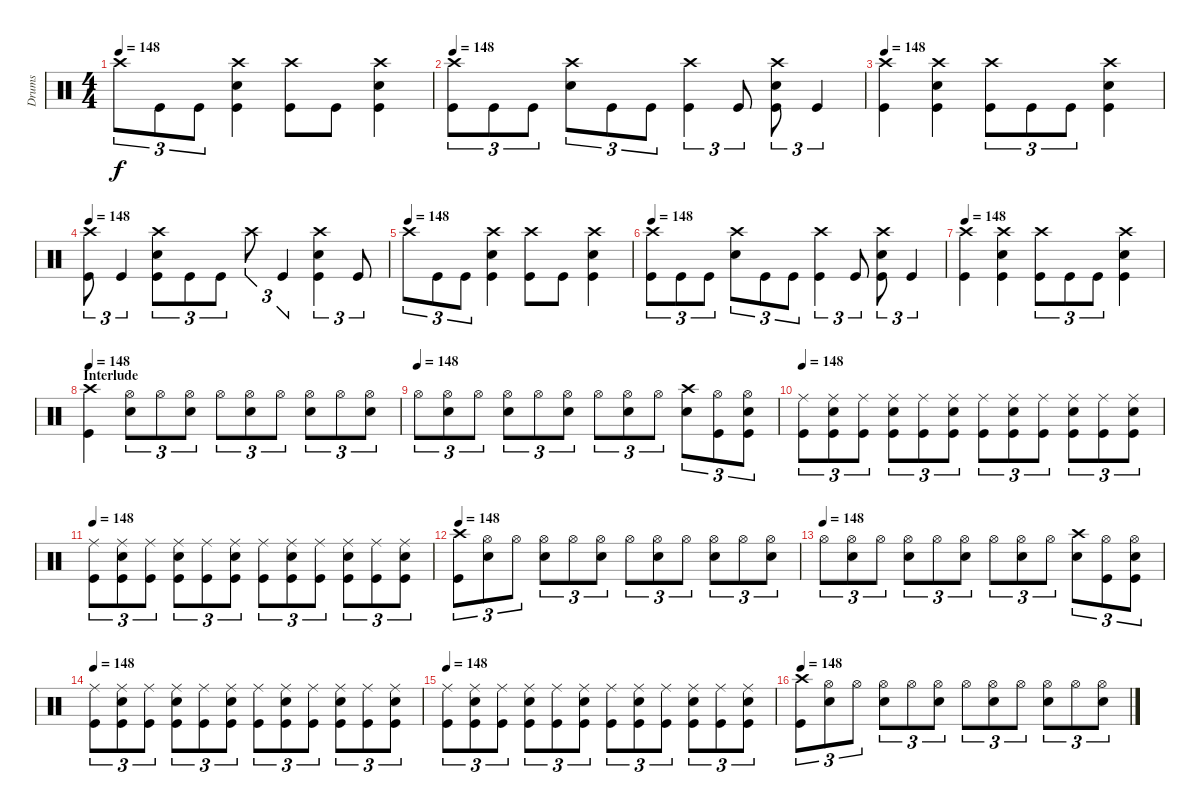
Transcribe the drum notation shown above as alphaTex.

\track ("Drums" "Drums") {instrument percussion}
\staff {score}
\articulation defaults
\ts (4 4)
\tempo 148
\clef neutral
\ks c "Crash high (hit)".8{tu (3 2) dy f} "Kick (hit)".8{tu (3 2)} "Kick (hit)".8{tu (3 2)}
("Crash high (hit)" "Electric Snare (hit)" "Kick (hit)").4 ("Crash high (hit)" "Kick (hit)").8 "Kick (hit)".8 ("Crash high (hit)" "Electric Snare (hit)" "Kick (hit)").4 |
\tempo 148
("Crash high (hit)" "Kick (hit)").8{tu (3 2)} "Kick (hit)".8{tu (3 2)} "Kick (hit)".8{tu (3 2)} ("Crash high (hit)" "Electric Snare (hit)").8{tu (3 2)} "Kick (hit)".8{tu (3 2)} "Kick (hit)".8{tu (3 2)} ("Crash high (hit)" "Kick (hit)").4{tu (3 2)} "Kick (hit)".8{tu (3 2)} ("Crash high (hit)" "Electric Snare (hit)" "Kick (hit)").8{tu (3 2)} "Kick (hit)".4{tu (3 2)} |
\tempo 148
("Crash high (hit)" "Kick (hit)").4 ("Crash high (hit)" "Electric Snare (hit)" "Kick (hit)").4 ("Crash high (hit)" "Kick (hit)").8{tu (3 2)} "Kick (hit)".8{tu (3 2)} "Kick (hit)".8{tu (3 2)} ("Crash high (hit)" "Electric Snare (hit)" "Kick (hit)").4 |
\tempo 148
("Crash high (hit)" "Kick (hit)").8{tu (3 2)} "Kick (hit)".4{tu (3 2)} ("Crash high (hit)" "Electric Snare (hit)" "Kick (hit)").8{tu (3 2)} "Kick (hit)".8{tu (3 2)} "Kick (hit)".8{tu (3 2)} "Crash high (hit)".8{tu (3 2)} "Kick (hit)".4{tu (3 2)} ("Crash high (hit)" "Electric Snare (hit)" "Kick (hit)").4{tu (3 2)} "Kick (hit)".8{tu (3 2)} |
\tempo (148)
"Crash high (hit)".8{tu (3 2)} "Kick (hit)".8{tu (3 2)} "Kick (hit)".8{tu (3 2)} ("Crash high (hit)" "Electric Snare (hit)" "Kick (hit)").4 ("Crash high (hit)" "Kick (hit)").8 "Kick (hit)".8 ("Crash high (hit)" "Electric Snare (hit)" "Kick (hit)").4 |
\tempo 148
("Crash high (hit)" "Kick (hit)").8{tu (3 2)} "Kick (hit)".8{tu (3 2)} "Kick (hit)".8{tu (3 2)} ("Crash high (hit)" "Electric Snare (hit)").8{tu (3 2)} "Kick (hit)".8{tu (3 2)} "Kick (hit)".8{tu (3 2)} ("Crash high (hit)" "Kick (hit)").4{tu (3 2)} "Kick (hit)".8{tu (3 2)} ("Crash high (hit)" "Electric Snare (hit)" "Kick (hit)").8{tu (3 2)} "Kick (hit)".4{tu (3 2)} |
\tempo 148
("Crash high (hit)" "Kick (hit)").4 ("Crash high (hit)" "Electric Snare (hit)" "Kick (hit)").4 ("Crash high (hit)" "Kick (hit)").8{tu (3 2)} "Kick (hit)".8{tu (3 2)} "Kick (hit)".8{tu (3 2)} ("Crash high (hit)" "Electric Snare (hit)" "Kick (hit)").4 |
\section ("" "Interlude")
\tempo 148
("Crash high (hit)" "Kick (hit)").4 ("Hi-Hat (open)" "Electric Snare (hit)").8{tu (3 2)} "Hi-Hat (open)".8{tu (3 2)} ("Hi-Hat (open)" "Electric Snare (hit)").8{tu (3 2)} "Hi-Hat (open)".8{tu (3 2)} ("Hi-Hat (open)" "Electric Snare (hit)").8{tu (3 2)} "Hi-Hat (open)".8{tu (3 2)} ("Hi-Hat (open)" "Electric Snare (hit)").8{tu (3 2)} "Hi-Hat (open)".8{tu (3 2)} ("Hi-Hat (open)" "Electric Snare (hit)").8{tu (3 2)} |
\tempo (148)
"Hi-Hat (open)".8{tu (3 2)} ("Hi-Hat (open)" "Electric Snare (hit)").8{tu (3 2)} "Hi-Hat (open)".8{tu (3 2)} ("Hi-Hat (open)" "Electric Snare (hit)").8{tu (3 2)} "Hi-Hat (open)".8{tu (3 2)} ("Hi-Hat (open)" "Electric Snare (hit)").8{tu (3 2)} "Hi-Hat (open)".8{tu (3 2)} ("Hi-Hat (open)" "Electric Snare (hit)").8{tu (3 2)} "Hi-Hat (open)".8{tu (3 2)} ("Crash high (hit)" "Electric Snare (hit)").8{tu (3 2)} ("Hi-Hat (open)" "Kick (hit)").8{tu (3 2)} ("Hi-Hat (open)" "Electric Snare (hit)" "Kick (hit)").8{tu (3 2)} |
\tempo 148
("Ride (middle)" "Kick (hit)").8{tu (3 2)} ("Ride (middle)" "Electric Snare (hit)" "Kick (hit)").8{tu (3 2)} ("Ride (middle)" "Kick (hit)").8{tu (3 2)} ("Ride (middle)" "Electric Snare (hit)" "Kick (hit)").8{tu (3 2)} ("Ride (middle)" "Kick (hit)").8{tu (3 2)} ("Ride (middle)" "Electric Snare (hit)" "Kick (hit)").8{tu (3 2)} ("Ride (middle)" "Kick (hit)").8{tu (3 2)} ("Ride (middle)" "Electric Snare (hit)" "Kick (hit)").8{tu (3 2)} ("Ride (middle)" "Kick (hit)").8{tu (3 2)} ("Ride (middle)" "Electric Snare (hit)" "Kick (hit)").8{tu (3 2)} ("Ride (middle)" "Kick (hit)").8{tu (3 2)} ("Ride (middle)" "Electric Snare (hit)" "Kick (hit)").8{tu (3 2)} |
\tempo 148
("Ride (middle)" "Kick (hit)").8{tu (3 2)} ("Ride (middle)" "Electric Snare (hit)" "Kick (hit)").8{tu (3 2)} ("Ride (middle)" "Kick (hit)").8{tu (3 2)} ("Ride (middle)" "Electric Snare (hit)" "Kick (hit)").8{tu (3 2)} ("Ride (middle)" "Kick (hit)").8{tu (3 2)} ("Ride (middle)" "Electric Snare (hit)" "Kick (hit)").8{tu (3 2)} ("Ride (middle)" "Kick (hit)").8{tu (3 2)} ("Ride (middle)" "Electric Snare (hit)" "Kick (hit)").8{tu (3 2)} ("Ride (middle)" "Kick (hit)").8{tu (3 2)} ("Ride (middle)" "Electric Snare (hit)" "Kick (hit)").8{tu (3 2)} ("Ride (middle)" "Kick (hit)").8{tu (3 2)} ("Ride (middle)" "Electric Snare (hit)" "Kick (hit)").8{tu (3 2)} |
\tempo 148
("Crash high (hit)" "Kick (hit)").8{tu (3 2)} ("Hi-Hat (open)" "Electric Snare (hit)").8{tu (3 2)} "Hi-Hat (open)".8{tu (3 2)} ("Hi-Hat (open)" "Electric Snare (hit)").8{tu (3 2)} "Hi-Hat (open)".8{tu (3 2)} ("Hi-Hat (open)" "Electric Snare (hit)").8{tu (3 2)} "Hi-Hat (open)".8{tu (3 2)} ("Hi-Hat (open)" "Electric Snare (hit)").8{tu (3 2)} "Hi-Hat (open)".8{tu (3 2)} ("Hi-Hat (open)" "Electric Snare (hit)").8{tu (3 2)} "Hi-Hat (open)".8{tu (3 2)} ("Hi-Hat (open)" "Electric Snare (hit)").8{tu (3 2)} |
\tempo (148)
"Hi-Hat (open)".8{tu (3 2)} ("Hi-Hat (open)" "Electric Snare (hit)").8{tu (3 2)} "Hi-Hat (open)".8{tu (3 2)} ("Hi-Hat (open)" "Electric Snare (hit)").8{tu (3 2)} "Hi-Hat (open)".8{tu (3 2)} ("Hi-Hat (open)" "Electric Snare (hit)").8{tu (3 2)} "Hi-Hat (open)".8{tu (3 2)} ("Hi-Hat (open)" "Electric Snare (hit)").8{tu (3 2)} "Hi-Hat (open)".8{tu (3 2)} ("Crash high (hit)" "Electric Snare (hit)").8{tu (3 2)} ("Hi-Hat (open)" "Kick (hit)").8{tu (3 2)} ("Hi-Hat (open)" "Electric Snare (hit)" "Kick (hit)").8{tu (3 2)} |
\tempo 148
("Ride (middle)" "Kick (hit)").8{tu (3 2)} ("Ride (middle)" "Electric Snare (hit)" "Kick (hit)").8{tu (3 2)} ("Ride (middle)" "Kick (hit)").8{tu (3 2)} ("Ride (middle)" "Electric Snare (hit)" "Kick (hit)").8{tu (3 2)} ("Ride (middle)" "Kick (hit)").8{tu (3 2)} ("Ride (middle)" "Electric Snare (hit)" "Kick (hit)").8{tu (3 2)} ("Ride (middle)" "Kick (hit)").8{tu (3 2)} ("Ride (middle)" "Electric Snare (hit)" "Kick (hit)").8{tu (3 2)} ("Ride (middle)" "Kick (hit)").8{tu (3 2)} ("Ride (middle)" "Electric Snare (hit)" "Kick (hit)").8{tu (3 2)} ("Ride (middle)" "Kick (hit)").8{tu (3 2)} ("Ride (middle)" "Electric Snare (hit)" "Kick (hit)").8{tu (3 2)} |
\tempo 148
("Ride (middle)" "Kick (hit)").8{tu (3 2)} ("Ride (middle)" "Electric Snare (hit)" "Kick (hit)").8{tu (3 2)} ("Ride (middle)" "Kick (hit)").8{tu (3 2)} ("Ride (middle)" "Electric Snare (hit)" "Kick (hit)").8{tu (3 2)} ("Ride (middle)" "Kick (hit)").8{tu (3 2)} ("Ride (middle)" "Electric Snare (hit)" "Kick (hit)").8{tu (3 2)} ("Ride (middle)" "Kick (hit)").8{tu (3 2)} ("Ride (middle)" "Electric Snare (hit)" "Kick (hit)").8{tu (3 2)} ("Ride (middle)" "Kick (hit)").8{tu (3 2)} ("Ride (middle)" "Electric Snare (hit)" "Kick (hit)").8{tu (3 2)} ("Ride (middle)" "Kick (hit)").8{tu (3 2)} ("Ride (middle)" "Electric Snare (hit)" "Kick (hit)").8{tu (3 2)} |
\tempo 148
("Crash high (hit)" "Kick (hit)").8{tu (3 2)} ("Hi-Hat (open)" "Electric Snare (hit)").8{tu (3 2)} "Hi-Hat (open)".8{tu (3 2)} ("Hi-Hat (open)" "Electric Snare (hit)").8{tu (3 2)} "Hi-Hat (open)".8{tu (3 2)} ("Hi-Hat (open)" "Electric Snare (hit)").8{tu (3 2)} "Hi-Hat (open)".8{tu (3 2)} ("Hi-Hat (open)" "Electric Snare (hit)").8{tu (3 2)} "Hi-Hat (open)".8{tu (3 2)} ("Hi-Hat (open)" "Electric Snare (hit)").8{tu (3 2)} "Hi-Hat (open)".8{tu (3 2)} ("Hi-Hat (open)" "Electric Snare (hit)").8{tu (3 2)}
